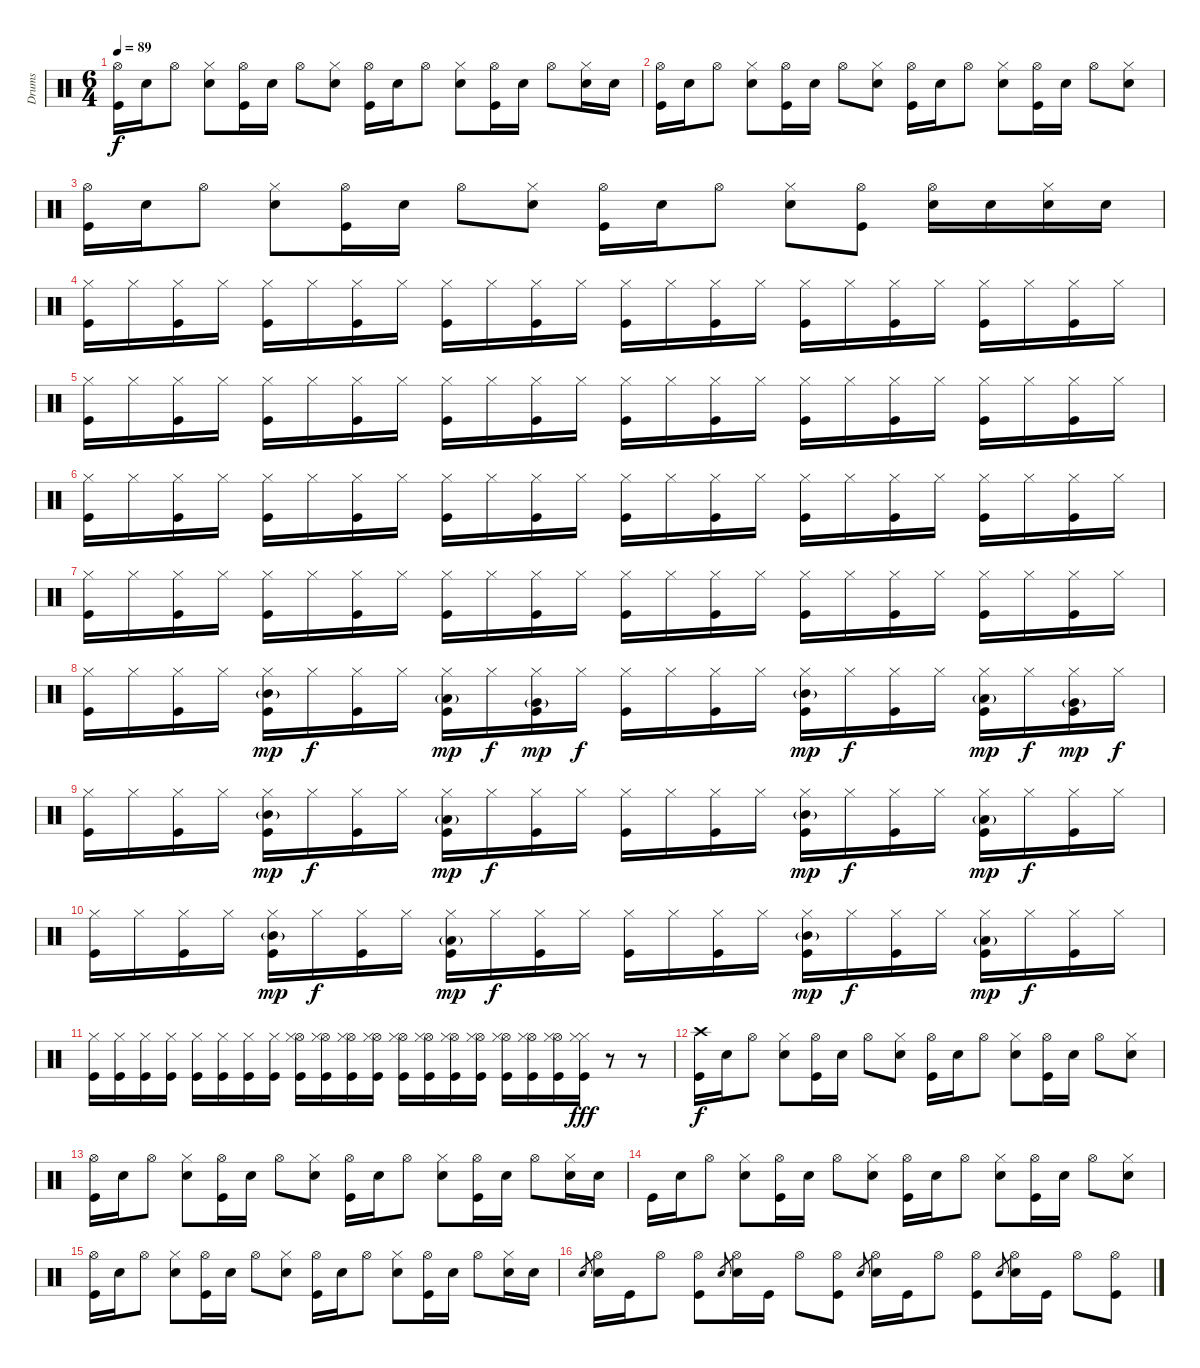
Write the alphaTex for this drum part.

\track ("Drums" "Drums") {instrument percussion}
\staff {score}
\articulation defaults
\ts (6 4)
\tempo 89
\clef neutral
\ks c
("Hi-Hat (open)" "Kick (hit)").16{dy f} "Snare (hit) 2".16 "Hi-Hat (open)".8 ("Hi-Hat (closed)" "Snare (hit) 2").8 ("Hi-Hat (open)" "Kick (hit)").16 "Snare (hit) 2".16 "Hi-Hat (open)".8 ("Hi-Hat (closed)" "Snare (hit) 2").8 ("Hi-Hat (open)" "Kick (hit)").16 "Snare (hit) 2".16 "Hi-Hat (open)".8 ("Hi-Hat (closed)" "Snare (hit) 2").8 ("Hi-Hat (open)" "Kick (hit)").16 "Snare (hit) 2".16 "Hi-Hat (open)".8 ("Hi-Hat (closed)" "Snare (hit) 2").16 "Snare (hit) 2".16 |
("Hi-Hat (open)" "Kick (hit)").16 "Snare (hit) 2".16 "Hi-Hat (open)".8 ("Hi-Hat (closed)" "Snare (hit) 2").8 ("Hi-Hat (open)" "Kick (hit)").16 "Snare (hit) 2".16 "Hi-Hat (open)".8 ("Hi-Hat (closed)" "Snare (hit) 2").8 ("Hi-Hat (open)" "Kick (hit)").16 "Snare (hit) 2".16 "Hi-Hat (open)".8 ("Hi-Hat (closed)" "Snare (hit) 2").8 ("Hi-Hat (open)" "Kick (hit)").16 "Snare (hit) 2".16 "Hi-Hat (open)".8 ("Hi-Hat (closed)" "Snare (hit) 2").8 |
("Hi-Hat (open)" "Kick (hit)").16 "Snare (hit) 2".16 "Hi-Hat (open)".8 ("Hi-Hat (closed)" "Snare (hit) 2").8 ("Hi-Hat (open)" "Kick (hit)").16 "Snare (hit) 2".16 "Hi-Hat (open)".8 ("Hi-Hat (closed)" "Snare (hit) 2").8 ("Hi-Hat (open)" "Kick (hit)").16 "Snare (hit) 2".16 "Hi-Hat (open)".8 ("Hi-Hat (closed)" "Snare (hit) 2").8 ("Hi-Hat (open)" "Kick (hit)").8 ("Hi-Hat (open)" "Snare (hit) 2").16 "Snare (hit) 2".16 ("Hi-Hat (closed)" "Snare (hit) 2").16 "Snare (hit) 2".16 |
("Hi-Hat (closed)" "Kick (hit)").16 "Hi-Hat (closed)".16 ("Hi-Hat (closed)" "Kick (hit)").16 "Hi-Hat (closed)".16 ("Hi-Hat (closed)" "Kick (hit)").16 "Hi-Hat (closed)".16 ("Hi-Hat (closed)" "Kick (hit)").16 "Hi-Hat (closed)".16 ("Hi-Hat (closed)" "Kick (hit)").16 "Hi-Hat (closed)".16 ("Hi-Hat (closed)" "Kick (hit)").16 "Hi-Hat (closed)".16 ("Hi-Hat (closed)" "Kick (hit)").16 "Hi-Hat (closed)".16 ("Hi-Hat (closed)" "Kick (hit)").16 "Hi-Hat (closed)".16 ("Hi-Hat (closed)" "Kick (hit)").16 "Hi-Hat (closed)".16 ("Hi-Hat (closed)" "Kick (hit)").16 "Hi-Hat (closed)".16 ("Hi-Hat (closed)" "Kick (hit)").16 "Hi-Hat (closed)".16 ("Hi-Hat (closed)" "Kick (hit)").16 "Hi-Hat (closed)".16 |
("Hi-Hat (closed)" "Kick (hit)").16 "Hi-Hat (closed)".16 ("Hi-Hat (closed)" "Kick (hit)").16 "Hi-Hat (closed)".16 ("Hi-Hat (closed)" "Kick (hit)").16 "Hi-Hat (closed)".16 ("Hi-Hat (closed)" "Kick (hit)").16 "Hi-Hat (closed)".16 ("Hi-Hat (closed)" "Kick (hit)").16 "Hi-Hat (closed)".16 ("Hi-Hat (closed)" "Kick (hit)").16 "Hi-Hat (closed)".16 ("Hi-Hat (closed)" "Kick (hit)").16 "Hi-Hat (closed)".16 ("Hi-Hat (closed)" "Kick (hit)").16 "Hi-Hat (closed)".16 ("Hi-Hat (closed)" "Kick (hit)").16 "Hi-Hat (closed)".16 ("Hi-Hat (closed)" "Kick (hit)").16 "Hi-Hat (closed)".16 ("Hi-Hat (closed)" "Kick (hit)").16 "Hi-Hat (closed)".16 ("Hi-Hat (closed)" "Kick (hit)").16 "Hi-Hat (closed)".16 |
("Hi-Hat (closed)" "Kick (hit)").16 "Hi-Hat (closed)".16 ("Hi-Hat (closed)" "Kick (hit)").16 "Hi-Hat (closed)".16 ("Hi-Hat (closed)" "Kick (hit)").16 "Hi-Hat (closed)".16 ("Hi-Hat (closed)" "Kick (hit)").16 "Hi-Hat (closed)".16 ("Hi-Hat (closed)" "Kick (hit)").16 "Hi-Hat (closed)".16 ("Hi-Hat (closed)" "Kick (hit)").16 "Hi-Hat (closed)".16 ("Hi-Hat (closed)" "Kick (hit)").16 "Hi-Hat (closed)".16 ("Hi-Hat (closed)" "Kick (hit)").16 "Hi-Hat (closed)".16 ("Hi-Hat (closed)" "Kick (hit)").16 "Hi-Hat (closed)".16 ("Hi-Hat (closed)" "Kick (hit)").16 "Hi-Hat (closed)".16 ("Hi-Hat (closed)" "Kick (hit)").16 "Hi-Hat (closed)".16 ("Hi-Hat (closed)" "Kick (hit)").16 "Hi-Hat (closed)".16 |
("Hi-Hat (closed)" "Kick (hit)").16 "Hi-Hat (closed)".16 ("Hi-Hat (closed)" "Kick (hit)").16 "Hi-Hat (closed)".16 ("Hi-Hat (closed)" "Kick (hit)").16 "Hi-Hat (closed)".16 ("Hi-Hat (closed)" "Kick (hit)").16 "Hi-Hat (closed)".16 ("Hi-Hat (closed)" "Kick (hit)").16 "Hi-Hat (closed)".16 ("Hi-Hat (closed)" "Kick (hit)").16 "Hi-Hat (closed)".16 ("Hi-Hat (closed)" "Kick (hit)").16 "Hi-Hat (closed)".16 ("Hi-Hat (closed)" "Kick (hit)").16 "Hi-Hat (closed)".16 ("Hi-Hat (closed)" "Kick (hit)").16 "Hi-Hat (closed)".16 ("Hi-Hat (closed)" "Kick (hit)").16 "Hi-Hat (closed)".16 ("Hi-Hat (closed)" "Kick (hit)").16 "Hi-Hat (closed)".16 ("Hi-Hat (closed)" "Kick (hit)").16 "Hi-Hat (closed)".16 |
("Hi-Hat (closed)" "Kick (hit)").16 "Hi-Hat (closed)".16 ("Hi-Hat (closed)" "Kick (hit)").16 "Hi-Hat (closed)".16 ("Mid Tom (hit)"{g} "Hi-Hat (closed)" "Kick (hit)").16{dy mp} "Hi-Hat (closed)".16{dy f} ("Hi-Hat (closed)" "Kick (hit)").16 "Hi-Hat (closed)".16 ("Low Tom (hit)"{g} "Hi-Hat (closed)" "Kick (hit)").16{dy mp} "Hi-Hat (closed)".16{dy f} ("Very Low Tom (hit)"{g} "Hi-Hat (closed)" "Kick (hit)").16{dy mp} "Hi-Hat (closed)".16{dy f} ("Hi-Hat (closed)" "Kick (hit)").16 "Hi-Hat (closed)".16 ("Hi-Hat (closed)" "Kick (hit)").16 "Hi-Hat (closed)".16 ("Mid Tom (hit)"{g} "Hi-Hat (closed)" "Kick (hit)").16{dy mp} "Hi-Hat (closed)".16{dy f} ("Hi-Hat (closed)" "Kick (hit)").16 "Hi-Hat (closed)".16 ("Low Tom (hit)"{g} "Hi-Hat (closed)" "Kick (hit)").16{dy mp} "Hi-Hat (closed)".16{dy f} ("Very Low Tom (hit)"{g} "Hi-Hat (closed)" "Kick (hit)").16{dy mp} "Hi-Hat (closed)".16{dy f} |
("Hi-Hat (closed)" "Kick (hit)").16 "Hi-Hat (closed)".16 ("Hi-Hat (closed)" "Kick (hit)").16 "Hi-Hat (closed)".16 ("Mid Tom (hit)"{g} "Hi-Hat (closed)" "Kick (hit)").16{dy mp} "Hi-Hat (closed)".16{dy f} ("Hi-Hat (closed)" "Kick (hit)").16 "Hi-Hat (closed)".16 ("Low Tom (hit)"{g} "Hi-Hat (closed)" "Kick (hit)").16{dy mp} "Hi-Hat (closed)".16{dy f} ("Hi-Hat (closed)" "Kick (hit)").16 "Hi-Hat (closed)".16 ("Hi-Hat (closed)" "Kick (hit)").16 "Hi-Hat (closed)".16 ("Hi-Hat (closed)" "Kick (hit)").16 "Hi-Hat (closed)".16 ("Mid Tom (hit)"{g} "Hi-Hat (closed)" "Kick (hit)").16{dy mp} "Hi-Hat (closed)".16{dy f} ("Hi-Hat (closed)" "Kick (hit)").16 "Hi-Hat (closed)".16 ("Low Tom (hit)"{g} "Hi-Hat (closed)" "Kick (hit)").16{dy mp} "Hi-Hat (closed)".16{dy f} ("Hi-Hat (closed)" "Kick (hit)").16 "Hi-Hat (closed)".16 |
("Hi-Hat (closed)" "Kick (hit)").16 "Hi-Hat (closed)".16 ("Hi-Hat (closed)" "Kick (hit)").16 "Hi-Hat (closed)".16 ("Mid Tom (hit)"{g} "Hi-Hat (closed)" "Kick (hit)").16{dy mp} "Hi-Hat (closed)".16{dy f} ("Hi-Hat (closed)" "Kick (hit)").16 "Hi-Hat (closed)".16 ("Low Tom (hit)"{g} "Hi-Hat (closed)" "Kick (hit)").16{dy mp} "Hi-Hat (closed)".16{dy f} ("Hi-Hat (closed)" "Kick (hit)").16 "Hi-Hat (closed)".16 ("Hi-Hat (closed)" "Kick (hit)").16 "Hi-Hat (closed)".16 ("Hi-Hat (closed)" "Kick (hit)").16 "Hi-Hat (closed)".16 ("Mid Tom (hit)"{g} "Hi-Hat (closed)" "Kick (hit)").16{dy mp} "Hi-Hat (closed)".16{dy f} ("Hi-Hat (closed)" "Kick (hit)").16 "Hi-Hat (closed)".16 ("Low Tom (hit)"{g} "Hi-Hat (closed)" "Kick (hit)").16{dy mp} "Hi-Hat (closed)".16{dy f} ("Hi-Hat (closed)" "Kick (hit)").16 "Hi-Hat (closed)".16 |
("Hi-Hat (closed)" "Kick (hit)").16 ("Hi-Hat (closed)" "Kick (hit)").16 ("Hi-Hat (closed)" "Kick (hit)").16 ("Hi-Hat (closed)" "Kick (hit)").16 ("Hi-Hat (closed)" "Kick (hit)").16 ("Hi-Hat (closed)" "Kick (hit)").16 ("Hi-Hat (closed)" "Kick (hit)").16 ("Hi-Hat (closed)" "Kick (hit)").16 ("Hi-Hat (open)" "Hi-Hat (closed)" "Kick (hit)").16 ("Hi-Hat (open)" "Hi-Hat (closed)" "Kick (hit)").16 ("Hi-Hat (open)" "Hi-Hat (closed)" "Kick (hit)").16 ("Hi-Hat (open)" "Hi-Hat (closed)" "Kick (hit)").16 ("Hi-Hat (open)" "Hi-Hat (closed)" "Kick (hit)").16 ("Hi-Hat (open)" "Hi-Hat (closed)" "Kick (hit)").16 ("Hi-Hat (open)" "Hi-Hat (closed)" "Kick (hit)").16 ("Hi-Hat (open)" "Hi-Hat (closed)" "Kick (hit)").16 ("Hi-Hat (open)" "Hi-Hat (closed)" "Kick (hit)").16 ("Hi-Hat (open)" "Hi-Hat (closed)" "Kick (hit)").16 ("Hi-Hat (open)" "Hi-Hat (closed)" "Kick (hit)").16 ("Hi-Hat (closed)" "Hi-Hat (closed)" "Kick (hit)").16{dy fff} r.8 r.8 |
("Crash high (hit)" "Kick (hit)").16{dy f} "Snare (hit) 2".16 "Hi-Hat (open)".8 ("Hi-Hat (closed)" "Snare (hit) 2").8 ("Hi-Hat (open)" "Kick (hit)").16 "Snare (hit) 2".16 "Hi-Hat (open)".8 ("Hi-Hat (closed)" "Snare (hit) 2").8 ("Hi-Hat (open)" "Kick (hit)").16 "Snare (hit) 2".16 "Hi-Hat (open)".8 ("Hi-Hat (closed)" "Snare (hit) 2").8 ("Hi-Hat (open)" "Kick (hit)").16 "Snare (hit) 2".16 "Hi-Hat (open)".8 ("Hi-Hat (closed)" "Snare (hit) 2").8 |
("Hi-Hat (open)" "Kick (hit)").16 "Snare (hit) 2".16 "Hi-Hat (open)".8 ("Hi-Hat (closed)" "Snare (hit) 2").8 ("Hi-Hat (open)" "Kick (hit)").16 "Snare (hit) 2".16 "Hi-Hat (open)".8 ("Hi-Hat (closed)" "Snare (hit) 2").8 ("Hi-Hat (open)" "Kick (hit)").16 "Snare (hit) 2".16 "Hi-Hat (open)".8 ("Hi-Hat (closed)" "Snare (hit) 2").8 ("Hi-Hat (open)" "Kick (hit)").16 "Snare (hit) 2".16 "Hi-Hat (open)".8 ("Hi-Hat (closed)" "Snare (hit) 2").16 "Snare (hit) 2".16 |
"Kick (hit)".16 "Snare (hit) 2".16 "Hi-Hat (open)".8 ("Hi-Hat (closed)" "Snare (hit) 2").8 ("Hi-Hat (open)" "Kick (hit)").16 "Snare (hit) 2".16 "Hi-Hat (open)".8 ("Hi-Hat (closed)" "Snare (hit) 2").8 ("Hi-Hat (open)" "Kick (hit)").16 "Snare (hit) 2".16 "Hi-Hat (open)".8 ("Hi-Hat (closed)" "Snare (hit) 2").8 ("Hi-Hat (open)" "Kick (hit)").16 "Snare (hit) 2".16 "Hi-Hat (open)".8 ("Hi-Hat (closed)" "Snare (hit) 2").8 |
("Hi-Hat (open)" "Kick (hit)").16 "Snare (hit) 2".16 "Hi-Hat (open)".8 ("Hi-Hat (closed)" "Snare (hit) 2").8 ("Hi-Hat (open)" "Kick (hit)").16 "Snare (hit) 2".16 "Hi-Hat (open)".8 ("Hi-Hat (closed)" "Snare (hit) 2").8 ("Hi-Hat (open)" "Kick (hit)").16 "Snare (hit) 2".16 "Hi-Hat (open)".8 ("Hi-Hat (closed)" "Snare (hit) 2").8 ("Hi-Hat (open)" "Kick (hit)").16 "Snare (hit) 2".16 "Hi-Hat (open)".8 ("Hi-Hat (closed)" "Snare (hit) 2").16 "Snare (hit) 2".16 |
"Snare (hit) 2".8{gr} ("Hi-Hat (open)" "Snare (hit) 2").16 "Kick (hit)".16 "Hi-Hat (open)".8 ("Hi-Hat (open)" "Kick (hit)").8 "Snare (hit) 2".8{gr} ("Hi-Hat (open)" "Snare (hit) 2").16 "Kick (hit)".16 "Hi-Hat (open)".8 ("Hi-Hat (open)" "Kick (hit)").8 "Snare (hit) 2".8{gr} ("Hi-Hat (open)" "Snare (hit) 2").16 "Kick (hit)".16 "Hi-Hat (open)".8 ("Hi-Hat (open)" "Kick (hit)").8 "Snare (hit) 2".8{gr} ("Hi-Hat (open)" "Snare (hit) 2").16 "Kick (hit)".16 "Hi-Hat (open)".8 ("Hi-Hat (open)" "Kick (hit)").8
